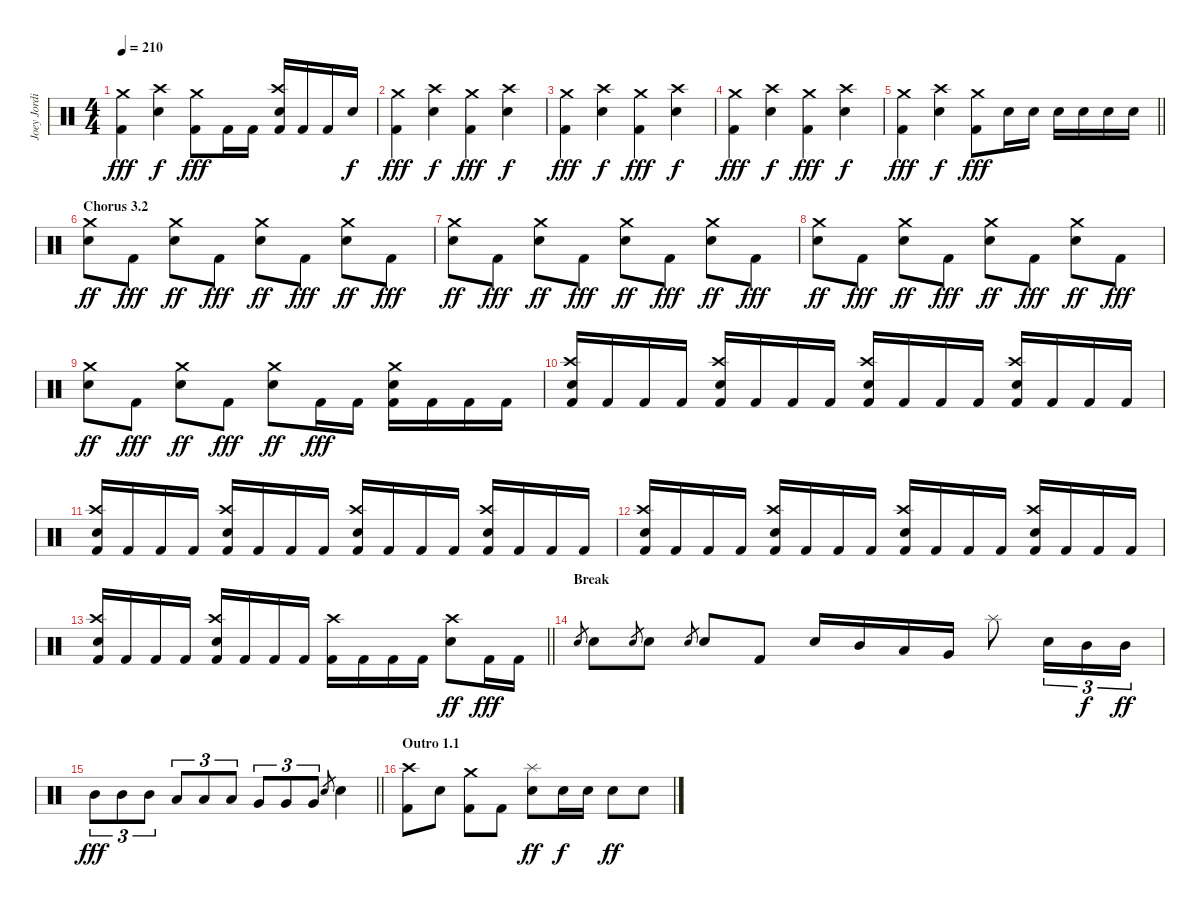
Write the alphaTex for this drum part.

\track ("Joey Jordison" "Joey Jordi") {instrument percussion}
\staff {score}
\articulation defaults
\ts (4 4)
\tempo 210
\clef neutral
\ks c
("Crash medium (hit)" "Kick (hit) 2").4{dy fff} ("Crash high (hit)" "Electric Snare (hit)").4{dy f} ("Crash medium (hit)" "Kick (hit) 2").8{dy fff} "Kick (hit) 2".16 "Kick (hit) 2".16 ("Crash high (hit)" "Electric Snare (hit)" "Kick (hit) 2").16 "Kick (hit) 2".16 "Kick (hit) 2".16 "Electric Snare (hit)".16{dy f} |
("Crash medium (hit)" "Kick (hit) 2").4{dy fff} ("Crash high (hit)" "Electric Snare (hit)").4{dy f} ("Crash medium (hit)" "Kick (hit) 2").4{dy fff} ("Crash high (hit)" "Electric Snare (hit)").4{dy f} |
("Crash medium (hit)" "Kick (hit) 2").4{dy fff} ("Crash high (hit)" "Electric Snare (hit)").4{dy f} ("Crash medium (hit)" "Kick (hit) 2").4{dy fff} ("Crash high (hit)" "Electric Snare (hit)").4{dy f} |
("Crash medium (hit)" "Kick (hit) 2").4{dy fff} ("Crash high (hit)" "Electric Snare (hit)").4{dy f} ("Crash medium (hit)" "Kick (hit) 2").4{dy fff} ("Crash high (hit)" "Electric Snare (hit)").4{dy f} |
\barLineRight lightlight
("Crash medium (hit)" "Kick (hit) 2").4{dy fff} ("Crash high (hit)" "Electric Snare (hit)").4{dy f} ("Crash medium (hit)" "Kick (hit) 2").8{dy fff} "Electric Snare (hit)".16 "Electric Snare (hit)".16 "Electric Snare (hit)".16 "Electric Snare (hit)".16 "Electric Snare (hit)".16 "Electric Snare (hit)".16 |
\section ("" "Chorus 3.2")
("Crash medium (hit)" "Electric Snare (hit)").8{dy ff} "Kick (hit) 2".8{dy fff} ("Crash medium (hit)" "Electric Snare (hit)").8{dy ff} "Kick (hit) 2".8{dy fff} ("Crash medium (hit)" "Electric Snare (hit)").8{dy ff} "Kick (hit) 2".8{dy fff} ("Crash medium (hit)" "Electric Snare (hit)").8{dy ff} "Kick (hit) 2".8{dy fff} |
("Crash medium (hit)" "Electric Snare (hit)").8{dy ff} "Kick (hit) 2".8{dy fff} ("Crash medium (hit)" "Electric Snare (hit)").8{dy ff} "Kick (hit) 2".8{dy fff} ("Crash medium (hit)" "Electric Snare (hit)").8{dy ff} "Kick (hit) 2".8{dy fff} ("Crash medium (hit)" "Electric Snare (hit)").8{dy ff} "Kick (hit) 2".8{dy fff} |
("Crash medium (hit)" "Electric Snare (hit)").8{dy ff} "Kick (hit) 2".8{dy fff} ("Crash medium (hit)" "Electric Snare (hit)").8{dy ff} "Kick (hit) 2".8{dy fff} ("Crash medium (hit)" "Electric Snare (hit)").8{dy ff} "Kick (hit) 2".8{dy fff} ("Crash medium (hit)" "Electric Snare (hit)").8{dy ff} "Kick (hit) 2".8{dy fff} |
("Crash medium (hit)" "Electric Snare (hit)").8{dy ff} "Kick (hit) 2".8{dy fff} ("Crash medium (hit)" "Electric Snare (hit)").8{dy ff} "Kick (hit) 2".8{dy fff} ("Crash medium (hit)" "Electric Snare (hit)").8{dy ff} "Kick (hit) 2".16{dy fff} "Kick (hit) 2".16 ("Crash medium (hit)" "Electric Snare (hit)" "Kick (hit) 2").16 "Kick (hit) 2".16 "Kick (hit) 2".16 "Kick (hit) 2".16 |
("Crash high (hit)" "Electric Snare (hit)" "Kick (hit) 2").16 "Kick (hit) 2".16 "Kick (hit) 2".16 "Kick (hit) 2".16 ("Crash high (hit)" "Electric Snare (hit)" "Kick (hit) 2").16 "Kick (hit) 2".16 "Kick (hit) 2".16 "Kick (hit) 2".16 ("Crash high (hit)" "Electric Snare (hit)" "Kick (hit) 2").16 "Kick (hit) 2".16 "Kick (hit) 2".16 "Kick (hit) 2".16 ("Crash high (hit)" "Electric Snare (hit)" "Kick (hit) 2").16 "Kick (hit) 2".16 "Kick (hit) 2".16 "Kick (hit) 2".16 |
("Crash high (hit)" "Electric Snare (hit)" "Kick (hit) 2").16 "Kick (hit) 2".16 "Kick (hit) 2".16 "Kick (hit) 2".16 ("Crash high (hit)" "Electric Snare (hit)" "Kick (hit) 2").16 "Kick (hit) 2".16 "Kick (hit) 2".16 "Kick (hit) 2".16 ("Crash high (hit)" "Electric Snare (hit)" "Kick (hit) 2").16 "Kick (hit) 2".16 "Kick (hit) 2".16 "Kick (hit) 2".16 ("Crash high (hit)" "Electric Snare (hit)" "Kick (hit) 2").16 "Kick (hit) 2".16 "Kick (hit) 2".16 "Kick (hit) 2".16 |
("Crash high (hit)" "Electric Snare (hit)" "Kick (hit) 2").16 "Kick (hit) 2".16 "Kick (hit) 2".16 "Kick (hit) 2".16 ("Crash high (hit)" "Electric Snare (hit)" "Kick (hit) 2").16 "Kick (hit) 2".16 "Kick (hit) 2".16 "Kick (hit) 2".16 ("Crash high (hit)" "Electric Snare (hit)" "Kick (hit) 2").16 "Kick (hit) 2".16 "Kick (hit) 2".16 "Kick (hit) 2".16 ("Crash high (hit)" "Electric Snare (hit)" "Kick (hit) 2").16 "Kick (hit) 2".16 "Kick (hit) 2".16 "Kick (hit) 2".16 |
\barLineRight lightlight
("Crash high (hit)" "Electric Snare (hit)" "Kick (hit) 2").16 "Kick (hit) 2".16 "Kick (hit) 2".16 "Kick (hit) 2".16 ("Crash high (hit)" "Electric Snare (hit)" "Kick (hit) 2").16 "Kick (hit) 2".16 "Kick (hit) 2".16 "Kick (hit) 2".16 ("Crash high (hit)" "Kick (hit) 2").16 "Kick (hit) 2".16 "Kick (hit) 2".16 "Kick (hit) 2".16 ("Crash high (hit)" "Electric Snare (hit)").8{dy ff} "Kick (hit) 2".16{dy fff} "Kick (hit) 2".16 |
\section ("" "Break")
"Electric Snare (hit)".8{gr} "Electric Snare (hit)".8 "Electric Snare (hit)".8{gr} "Electric Snare (hit)".8 "Electric Snare (hit)".8{gr} "Electric Snare (hit)".8 "Kick (hit) 2".8 "Electric Snare (hit)".16 "Mid Tom (hit)".16 "Low Tom (hit)".16 "Very Low Tom (hit)".16 "Splash (hit)".8 "Electric Snare (hit)".16{tu (3 2)} "Mid Tom (hit)".16{tu (3 2) dy f} "Mid Tom (hit)".16{tu (3 2) dy ff} |
\barLineRight lightlight "Mid Tom (hit)".8{tu (3 2) dy fff} "Mid Tom (hit)".8{tu (3 2)} "Mid Tom (hit)".8{tu (3 2)} "Low Tom (hit)".8{tu (3 2)} "Low Tom (hit)".8{tu (3 2)} "Low Tom (hit)".8{tu (3 2)} "Very Low Tom (hit)".8{tu (3 2)} "Very Low Tom (hit)".8{tu (3 2)} "Very Low Tom (hit)".8{tu (3 2)} "Electric Snare (hit)".8{gr} "Electric Snare (hit)".4
|
\section ("" "Outro 1.1")
("Crash high (hit)" "Kick (hit) 2").8 "Electric Snare (hit)".8 ("Crash medium (hit)" "Kick (hit) 2").8 "Kick (hit) 2".8 ("Splash (hit)" "Electric Snare (hit)").8{dy ff} "Electric Snare (hit)".16{dy f} "Electric Snare (hit)".16 "Electric Snare (hit)".8{dy ff} "Electric Snare (hit)".8
